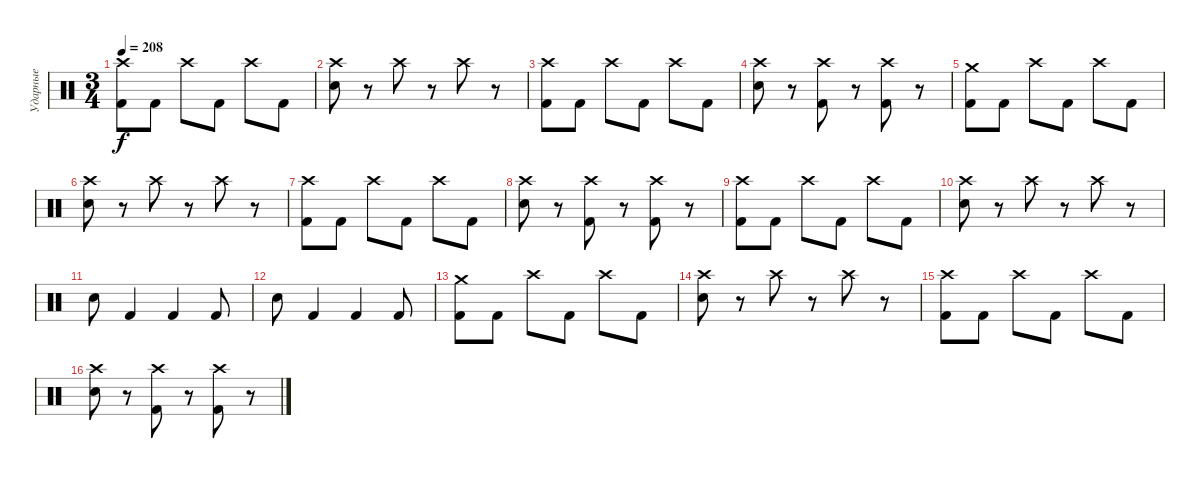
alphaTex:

\track ("Ударные" "Ударные") {instrument percussion}
\staff {score}
\articulation defaults
\ts (3 4)
\tempo 208
\clef neutral
\ks c
("Crash high (hit)" "Kick (hit) 2").8{dy f} "Kick (hit) 2".8 "Crash high (hit)".8 "Kick (hit) 2".8 "Crash high (hit)".8 "Kick (hit) 2".8 |
("Crash high (hit)" "Electric Snare (hit)").8 r.8 "Crash high (hit)".8 r.8 "Crash high (hit)".8 r.8 |
("Crash high (hit)" "Kick (hit) 2").8 "Kick (hit) 2".8 "Crash high (hit)".8 "Kick (hit) 2".8 "Crash high (hit)".8 "Kick (hit) 2".8 |
("Crash high (hit)" "Electric Snare (hit)").8 r.8 ("Crash high (hit)" "Kick (hit) 2").8 r.8 ("Crash high (hit)" "Kick (hit) 2").8 r.8 |
("Crash medium (hit)" "Kick (hit) 2").8 "Kick (hit) 2".8 "Crash high (hit)".8 "Kick (hit) 2".8 "Crash high (hit)".8 "Kick (hit) 2".8 |
("Crash high (hit)" "Electric Snare (hit)").8 r.8 "Crash high (hit)".8 r.8 "Crash high (hit)".8 r.8 |
("Crash high (hit)" "Kick (hit) 2").8 "Kick (hit) 2".8 "Crash high (hit)".8 "Kick (hit) 2".8 "Crash high (hit)".8 "Kick (hit) 2".8 |
("Crash high (hit)" "Electric Snare (hit)").8 r.8 ("Crash high (hit)" "Kick (hit) 2").8 r.8 ("Crash high (hit)" "Kick (hit) 2").8 r.8 |
("Crash high (hit)" "Kick (hit) 2").8 "Kick (hit) 2".8 "Crash high (hit)".8 "Kick (hit) 2".8 "Crash high (hit)".8 "Kick (hit) 2".8 |
("Crash high (hit)" "Electric Snare (hit)").8 r.8 "Crash high (hit)".8 r.8 "Crash high (hit)".8 r.8 |
"Electric Snare (hit)".8 "Kick (hit) 2".4 "Kick (hit) 2".4 "Kick (hit) 2".8 |
"Electric Snare (hit)".8 "Kick (hit) 2".4 "Kick (hit) 2".4 "Kick (hit) 2".8 |
("Crash medium (hit)" "Kick (hit) 2").8 "Kick (hit) 2".8 "Crash high (hit)".8 "Kick (hit) 2".8 "Crash high (hit)".8 "Kick (hit) 2".8 |
("Crash high (hit)" "Electric Snare (hit)").8 r.8 "Crash high (hit)".8 r.8 "Crash high (hit)".8 r.8 |
("Crash high (hit)" "Kick (hit) 2").8 "Kick (hit) 2".8 "Crash high (hit)".8 "Kick (hit) 2".8 "Crash high (hit)".8 "Kick (hit) 2".8 |
("Crash high (hit)" "Electric Snare (hit)").8 r.8 ("Crash high (hit)" "Kick (hit) 2").8 r.8 ("Crash high (hit)" "Kick (hit) 2").8 r.8
